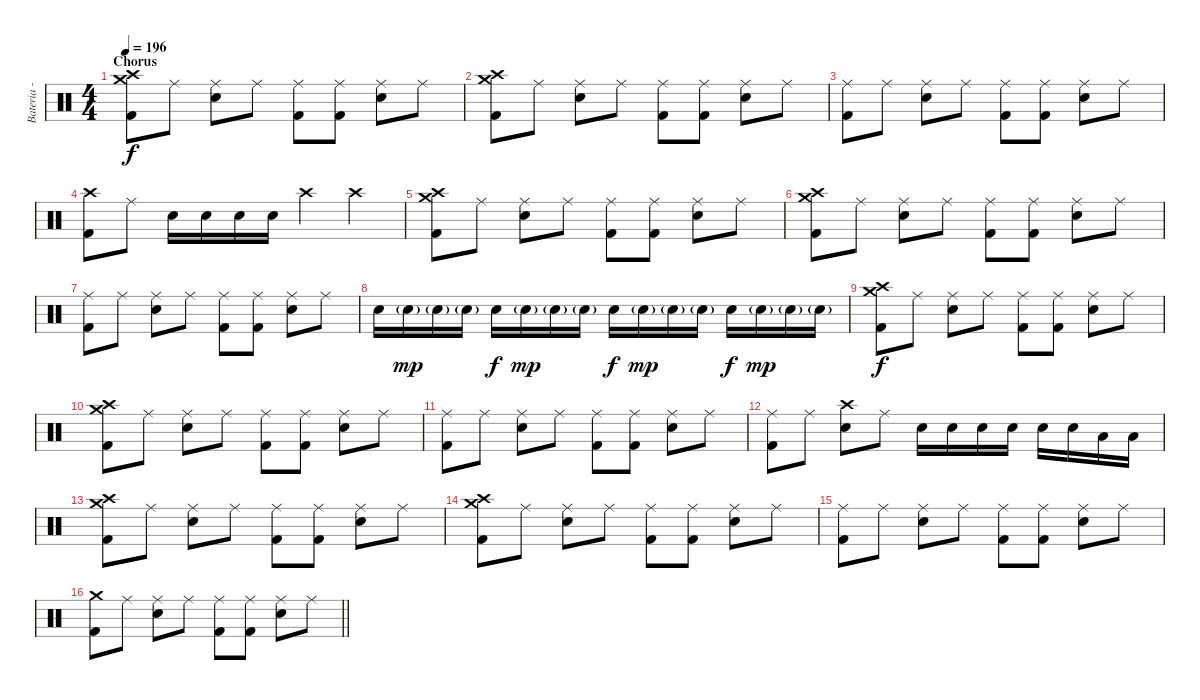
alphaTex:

\track ("Bateria - Larzon" "Bateria - ") {instrument percussion}
\staff {score}
\articulation defaults
\ts (4 4)
\section ("" "Chorus")
\tempo 196
\clef neutral
\ks c
("Kick (hit) 2" "Crash medium (hit)" "Crash high (hit)").8{dy f volume 13} "Ride (middle)".8 ("Snare (hit) 2" "Ride (middle)").8 "Ride (middle)".8 ("Kick (hit) 2" "Ride (middle)").8 ("Kick (hit) 2" "Ride (middle)").8 ("Snare (hit) 2" "Ride (middle)").8 "Ride (middle)".8 |
("Kick (hit) 2" "Crash medium (hit)" "Crash high (hit)").8 "Ride (middle)".8 ("Snare (hit) 2" "Ride (middle)").8 "Ride (middle)".8 ("Kick (hit) 2" "Ride (middle)").8 ("Kick (hit) 2" "Ride (middle)").8 ("Snare (hit) 2" "Ride (middle)").8 "Ride (middle)".8 |
("Kick (hit) 2" "Ride (middle)").8 "Ride (middle)".8 ("Snare (hit) 2" "Ride (middle)").8 "Ride (middle)".8 ("Kick (hit) 2" "Ride (middle)").8 ("Kick (hit) 2" "Ride (middle)").8 ("Snare (hit) 2" "Ride (middle)").8 "Ride (middle)".8 |
("Kick (hit) 2" "Crash high (hit)").8 "Ride (middle)".8 "Snare (hit) 2".16 "Snare (hit) 2".16 "Snare (hit) 2".16 "Snare (hit) 2".16 "Crash high (hit)".4 "Crash high (hit)".4 |
("Kick (hit) 2" "Crash medium (hit)" "Crash high (hit)").8 "Ride (middle)".8 ("Snare (hit) 2" "Ride (middle)").8 "Ride (middle)".8 ("Kick (hit) 2" "Ride (middle)").8 ("Kick (hit) 2" "Ride (middle)").8 ("Snare (hit) 2" "Ride (middle)").8 "Ride (middle)".8 |
("Kick (hit) 2" "Crash medium (hit)" "Crash high (hit)").8 "Ride (middle)".8 ("Snare (hit) 2" "Ride (middle)").8 "Ride (middle)".8 ("Kick (hit) 2" "Ride (middle)").8 ("Kick (hit) 2" "Ride (middle)").8 ("Snare (hit) 2" "Ride (middle)").8 "Ride (middle)".8 |
("Kick (hit) 2" "Ride (middle)").8 "Ride (middle)".8 ("Snare (hit) 2" "Ride (middle)").8 "Ride (middle)".8 ("Kick (hit) 2" "Ride (middle)").8 ("Kick (hit) 2" "Ride (middle)").8 ("Snare (hit) 2" "Ride (middle)").8 "Ride (middle)".8 |
"Snare (hit) 2".16 "Snare (hit) 2"{g}.16{dy mp} "Snare (hit) 2"{g}.16 "Snare (hit) 2"{g}.16 "Snare (hit) 2".16{dy f} "Snare (hit) 2"{g}.16{dy mp} "Snare (hit) 2"{g}.16 "Snare (hit) 2"{g}.16 "Snare (hit) 2".16{dy f} "Snare (hit) 2"{g}.16{dy mp} "Snare (hit) 2"{g}.16 "Snare (hit) 2"{g}.16 "Snare (hit) 2".16{dy f} "Snare (hit) 2"{g}.16{dy mp} "Snare (hit) 2"{g}.16 "Snare (hit) 2"{g}.16 |
("Kick (hit) 2" "Crash medium (hit)" "Crash high (hit)").8{dy f} "Ride (middle)".8 ("Snare (hit) 2" "Ride (middle)").8 "Ride (middle)".8 ("Kick (hit) 2" "Ride (middle)").8 ("Kick (hit) 2" "Ride (middle)").8 ("Snare (hit) 2" "Ride (middle)").8 "Ride (middle)".8 |
("Kick (hit) 2" "Crash medium (hit)" "Crash high (hit)").8 "Ride (middle)".8 ("Snare (hit) 2" "Ride (middle)").8 "Ride (middle)".8 ("Kick (hit) 2" "Ride (middle)").8 ("Kick (hit) 2" "Ride (middle)").8 ("Snare (hit) 2" "Ride (middle)").8 "Ride (middle)".8 |
("Kick (hit) 2" "Ride (middle)").8 "Ride (middle)".8 ("Snare (hit) 2" "Ride (middle)").8 "Ride (middle)".8 ("Kick (hit) 2" "Ride (middle)").8 ("Kick (hit) 2" "Ride (middle)").8 ("Snare (hit) 2" "Ride (middle)").8 "Ride (middle)".8 |
("Kick (hit) 2" "Ride (middle)").8 "Ride (middle)".8 ("Snare (hit) 2" "Crash high (hit)").8 "Ride (middle)".8 "Snare (hit) 2".16 "Snare (hit) 2".16 "Snare (hit) 2".16 "Snare (hit) 2".16 "Snare (hit) 2".16 "Snare (hit) 2".16 "Low Tom (hit)".16 "Low Tom (hit)".16 |
("Kick (hit) 2" "Crash medium (hit)" "Crash high (hit)").8 "Ride (middle)".8 ("Snare (hit) 2" "Ride (middle)").8 "Ride (middle)".8 ("Kick (hit) 2" "Ride (middle)").8 ("Kick (hit) 2" "Ride (middle)").8 ("Snare (hit) 2" "Ride (middle)").8 "Ride (middle)".8 |
("Kick (hit) 2" "Crash medium (hit)" "Crash high (hit)").8 "Ride (middle)".8 ("Snare (hit) 2" "Ride (middle)").8 "Ride (middle)".8 ("Kick (hit) 2" "Ride (middle)").8 ("Kick (hit) 2" "Ride (middle)").8 ("Snare (hit) 2" "Ride (middle)").8 "Ride (middle)".8 |
("Kick (hit) 2" "Ride (middle)").8 "Ride (middle)".8 ("Snare (hit) 2" "Ride (middle)").8 "Ride (middle)".8 ("Kick (hit) 2" "Ride (middle)").8 ("Kick (hit) 2" "Ride (middle)").8 ("Snare (hit) 2" "Ride (middle)").8 "Ride (middle)".8 |
\barLineRight lightlight
("Kick (hit) 2" "Crash medium (hit)").8 "Ride (middle)".8 ("Snare (hit) 2" "Ride (middle)").8 "Ride (middle)".8 ("Kick (hit) 2" "Ride (middle)").8 ("Kick (hit) 2" "Ride (middle)").8 ("Snare (hit) 2" "Ride (middle)").8 "Ride (middle)".8
